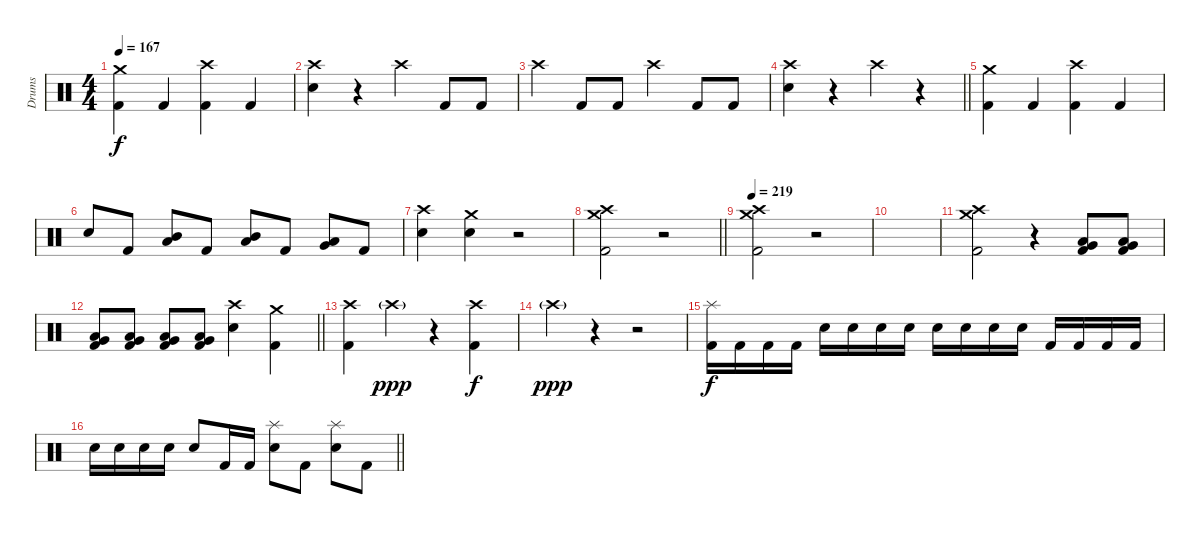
\track ("Drums" "Drums") {instrument percussion}
\staff {score}
\articulation defaults
\ts (4 4)
\section ("" "")
\tempo 167
\clef neutral
\ks c
("Crash medium (hit)" "Kick (hit) 2").4{dy f} "Kick (hit) 2".4 ("Crash high (hit)" "Kick (hit) 2").4 "Kick (hit) 2".4 |
("Crash high (hit)" "Electric Snare (hit)").4 r.4 "Crash high (hit)".4 "Kick (hit) 2".8 "Kick (hit) 2".8 |
"Crash high (hit)".4 "Kick (hit) 2".8 "Kick (hit) 2".8 "Crash high (hit)".4 "Kick (hit) 2".8 "Kick (hit) 2".8 |
\barLineRight lightlight
("Crash high (hit)" "Electric Snare (hit)").4 r.4 "Crash high (hit)".4 r.4 |
("Crash medium (hit)" "Kick (hit) 2").4 "Kick (hit) 2".4 ("Crash high (hit)" "Kick (hit) 2").4 "Kick (hit) 2".4 |
"Electric Snare (hit)".8 "Kick (hit) 2".8 ("Mid Tom (hit)" "Low Tom (hit)").8 "Kick (hit) 2".8 ("Mid Tom (hit)" "Low Tom (hit)").8 "Kick (hit) 2".8 ("Low Tom (hit)" "Very Low Tom (hit)").8 "Kick (hit) 2".8 |
("Crash high (hit)" "Electric Snare (hit)").4 ("Crash medium (hit)" "Electric Snare (hit)").4 r.2 |
\barLineRight lightlight
("Crash high (hit)" "Crash medium (hit)" "Kick (hit) 2").2 r.2 |
\section ("" "")
\tempo 219
("Crash high (hit)" "Crash medium (hit)" "Kick (hit) 2").2 r.2 |
|
("Crash high (hit)" "Crash medium (hit)" "Kick (hit) 2").2 r.4 ("Low Tom (hit)" "Very Low Tom (hit)" "Kick (hit) 2").8 ("Low Tom (hit)" "Very Low Tom (hit)" "Kick (hit) 2").8 |
\barLineRight lightlight
("Low Tom (hit)" "Very Low Tom (hit)" "Kick (hit) 2").8 ("Low Tom (hit)" "Very Low Tom (hit)" "Kick (hit) 2").8 ("Low Tom (hit)" "Very Low Tom (hit)" "Kick (hit) 2").8 ("Low Tom (hit)" "Very Low Tom (hit)" "Kick (hit) 2").8 ("Crash high (hit)" "Electric Snare (hit)").4 ("Crash medium (hit)" "Kick (hit) 2").4 |
("Crash high (hit)" "Kick (hit) 2").4 "Crash high (hit)"{g}.4{dy ppp} r.4 ("Crash high (hit)" "Kick (hit) 2").4{dy f} |
"Crash high (hit)"{g}.4{dy ppp} r.4 r.2 |
("Splash (hit)" "Kick (hit) 2").16{dy f} "Kick (hit) 2".16 "Kick (hit) 2".16 "Kick (hit) 2".16 "Electric Snare (hit)".16 "Electric Snare (hit)".16 "Electric Snare (hit)".16 "Electric Snare (hit)".16 "Electric Snare (hit)".16 "Electric Snare (hit)".16 "Electric Snare (hit)".16 "Electric Snare (hit)".16 "Kick (hit) 2".16 "Kick (hit) 2".16 "Kick (hit) 2".16 "Kick (hit) 2".16 |
\barLineRight lightlight "Electric Snare (hit)".16 "Electric Snare (hit)".16 "Electric Snare (hit)".16 "Electric Snare (hit)".16 "Electric Snare (hit)".8 "Kick (hit) 2".16 "Kick (hit) 2".16
("Splash (hit)" "Electric Snare (hit)").8 "Kick (hit) 2".8 ("Splash (hit)" "Electric Snare (hit)").8 "Kick (hit) 2".8
